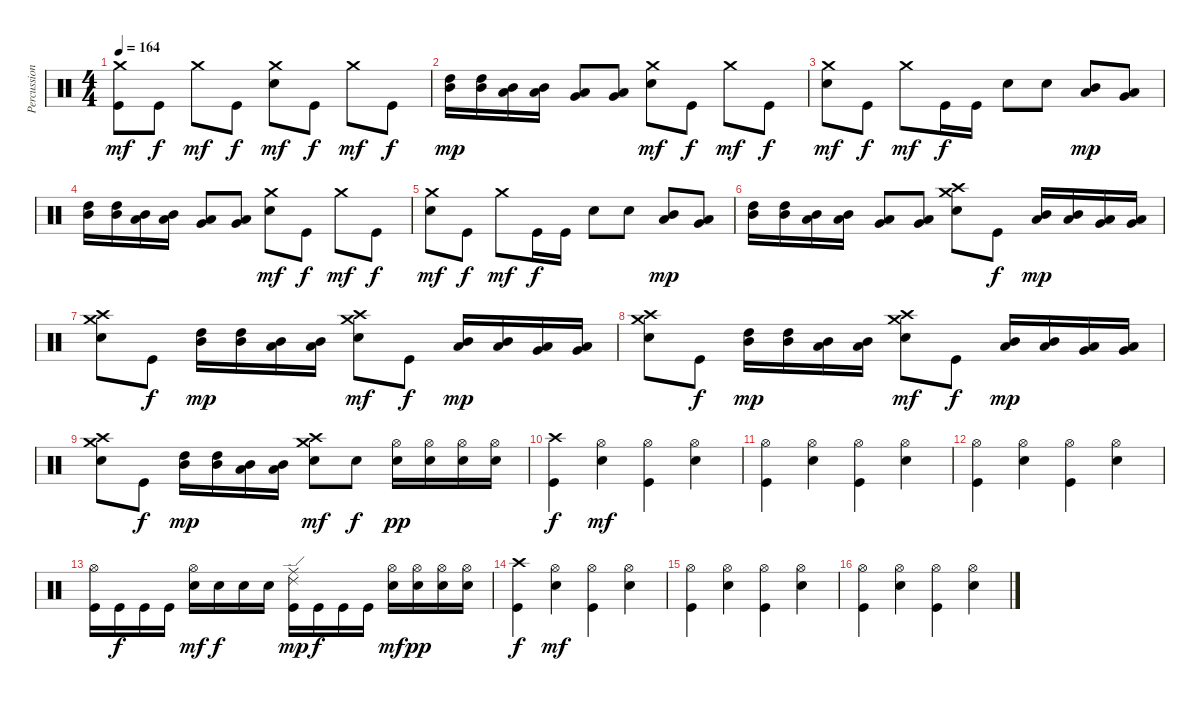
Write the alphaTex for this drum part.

\track ("Percussion" "Percussion") {instrument percussion}
\staff {score}
\articulation defaults
\ts (4 4)
\tempo 164
\clef neutral
\ks c
("Kick (hit)" "Crash medium (hit)").8{dy mf} "Kick (hit)".8{dy f} "Crash medium (hit)".8{dy mf} "Kick (hit)".8{dy f} ("Electric Snare (hit)" "Crash medium (hit)").8{dy mf} "Kick (hit)".8{dy f} "Crash medium (hit)".8{dy mf} "Kick (hit)".8{dy f} |
("Mid Tom (hit)" "High Tom (hit)").16{dy mp} ("Mid Tom (hit)" "High Tom (hit)").16 ("Low Tom (hit)" "Mid Tom (hit)").16 ("Low Tom (hit)" "Mid Tom (hit)").16 ("Very Low Tom (hit)" "Low Tom (hit)").8 ("Very Low Tom (hit)" "Low Tom (hit)").8 ("Electric Snare (hit)" "Crash medium (hit)").8{dy mf} "Kick (hit)".8{dy f} "Crash medium (hit)".8{dy mf} "Kick (hit)".8{dy f} |
("Electric Snare (hit)" "Crash medium (hit)").8{dy mf} "Kick (hit)".8{dy f} "Crash medium (hit)".8{dy mf} "Kick (hit)".16{dy f} "Kick (hit)".16 "Electric Snare (hit)".8 "Electric Snare (hit)".8 ("Low Tom (hit)" "Mid Tom (hit)").8{dy mp} ("Very Low Tom (hit)" "Low Tom (hit)").8 |
("Mid Tom (hit)" "High Tom (hit)").16 ("Mid Tom (hit)" "High Tom (hit)").16 ("Low Tom (hit)" "Mid Tom (hit)").16 ("Low Tom (hit)" "Mid Tom (hit)").16 ("Very Low Tom (hit)" "Low Tom (hit)").8 ("Very Low Tom (hit)" "Low Tom (hit)").8 ("Electric Snare (hit)" "Crash medium (hit)").8{dy mf} "Kick (hit)".8{dy f} "Crash medium (hit)".8{dy mf} "Kick (hit)".8{dy f} |
("Electric Snare (hit)" "Crash medium (hit)").8{dy mf} "Kick (hit)".8{dy f} "Crash medium (hit)".8{dy mf} "Kick (hit)".16{dy f} "Kick (hit)".16 "Electric Snare (hit)".8 "Electric Snare (hit)".8 ("Low Tom (hit)" "Mid Tom (hit)").8{dy mp} ("Very Low Tom (hit)" "Low Tom (hit)").8 |
("Mid Tom (hit)" "High Tom (hit)").16 ("Mid Tom (hit)" "High Tom (hit)").16 ("Low Tom (hit)" "Mid Tom (hit)").16 ("Low Tom (hit)" "Mid Tom (hit)").16 ("Very Low Tom (hit)" "Low Tom (hit)").8 ("Very Low Tom (hit)" "Low Tom (hit)").8 ("Electric Snare (hit)" "Crash medium (hit)" "Crash high (hit)").8 "Kick (hit)".8{dy f} ("Low Tom (hit)" "Mid Tom (hit)").16{dy mp} ("Low Tom (hit)" "Mid Tom (hit)").16 ("Very Low Tom (hit)" "Low Tom (hit)").16 ("Very Low Tom (hit)" "Low Tom (hit)").16 |
("Electric Snare (hit)" "Crash high (hit)" "Crash medium (hit)").8 "Kick (hit)".8{dy f} ("Mid Tom (hit)" "High Tom (hit)").16{dy mp} ("Mid Tom (hit)" "High Tom (hit)").16 ("Low Tom (hit)" "Mid Tom (hit)").16 ("Low Tom (hit)" "Mid Tom (hit)").16 ("Electric Snare (hit)" "Crash high (hit)" "Crash medium (hit)").8{dy mf} "Kick (hit)".8{dy f} ("Low Tom (hit)" "Mid Tom (hit)").16{dy mp} ("Low Tom (hit)" "Mid Tom (hit)").16 ("Very Low Tom (hit)" "Low Tom (hit)").16 ("Very Low Tom (hit)" "Low Tom (hit)").16 |
("Electric Snare (hit)" "Crash high (hit)" "Crash medium (hit)").8 "Kick (hit)".8{dy f} ("Mid Tom (hit)" "High Tom (hit)").16{dy mp} ("Mid Tom (hit)" "High Tom (hit)").16 ("Low Tom (hit)" "Mid Tom (hit)").16 ("Low Tom (hit)" "Mid Tom (hit)").16 ("Electric Snare (hit)" "Crash high (hit)" "Crash medium (hit)").8{dy mf} "Kick (hit)".8{dy f} ("Low Tom (hit)" "Mid Tom (hit)").16{dy mp} ("Low Tom (hit)" "Mid Tom (hit)").16 ("Very Low Tom (hit)" "Low Tom (hit)").16 ("Very Low Tom (hit)" "Low Tom (hit)").16 |
("Electric Snare (hit)" "Crash high (hit)" "Crash medium (hit)").8 "Kick (hit)".8{dy f} ("Mid Tom (hit)" "High Tom (hit)").16{dy mp} ("Mid Tom (hit)" "High Tom (hit)").16 ("Low Tom (hit)" "Mid Tom (hit)").16 ("Low Tom (hit)" "Mid Tom (hit)").16 ("Electric Snare (hit)" "Crash high (hit)" "Crash medium (hit)").8{dy mf} "Electric Snare (hit)".8{dy f} ("Electric Snare (hit)" "Hi-Hat (open)").16{dy pp} ("Electric Snare (hit)" "Hi-Hat (open)").16 ("Electric Snare (hit)" "Hi-Hat (open)").16 ("Electric Snare (hit)" "Hi-Hat (open)").16 |
("Kick (hit)" "Crash high (hit)").4{dy f} ("Electric Snare (hit)" "Hi-Hat (open)").4{dy mf} ("Kick (hit)" "Hi-Hat (open)").4 ("Electric Snare (hit)" "Hi-Hat (open)").4 |
("Kick (hit)" "Hi-Hat (open)").4 ("Electric Snare (hit)" "Hi-Hat (open)").4 ("Kick (hit)" "Hi-Hat (open)").4 ("Electric Snare (hit)" "Hi-Hat (open)").4 |
("Kick (hit)" "Hi-Hat (open)").4 ("Electric Snare (hit)" "Hi-Hat (open)").4 ("Kick (hit)" "Hi-Hat (open)").4 ("Electric Snare (hit)" "Hi-Hat (open)").4 |
("Kick (hit)" "Hi-Hat (open)").16 "Kick (hit)".16{dy f} "Kick (hit)".16 "Kick (hit)".16 ("Electric Snare (hit)" "Hi-Hat (open)").16{dy mf} "Electric Snare (hit)".16{dy f} "Electric Snare (hit)".16 "Electric Snare (hit)".16 ("Kick (hit)" "Ride (edge) 2" "Ride (middle)").16{dy mp} "Kick (hit)".16{dy f} "Kick (hit)".16 "Kick (hit)".16 ("Electric Snare (hit)" "Hi-Hat (open)").16{dy mf} ("Electric Snare (hit)" "Hi-Hat (open)").16{dy pp} ("Electric Snare (hit)" "Hi-Hat (open)").16 ("Electric Snare (hit)" "Hi-Hat (open)").16 |
("Kick (hit)" "Crash high (hit)").4{dy f} ("Electric Snare (hit)" "Hi-Hat (open)").4{dy mf} ("Kick (hit)" "Hi-Hat (open)").4 ("Electric Snare (hit)" "Hi-Hat (open)").4 |
("Kick (hit)" "Hi-Hat (open)").4 ("Electric Snare (hit)" "Hi-Hat (open)").4 ("Kick (hit)" "Hi-Hat (open)").4 ("Electric Snare (hit)" "Hi-Hat (open)").4 |
("Kick (hit)" "Hi-Hat (open)").4 ("Electric Snare (hit)" "Hi-Hat (open)").4 ("Kick (hit)" "Hi-Hat (open)").4 ("Electric Snare (hit)" "Hi-Hat (open)").4
